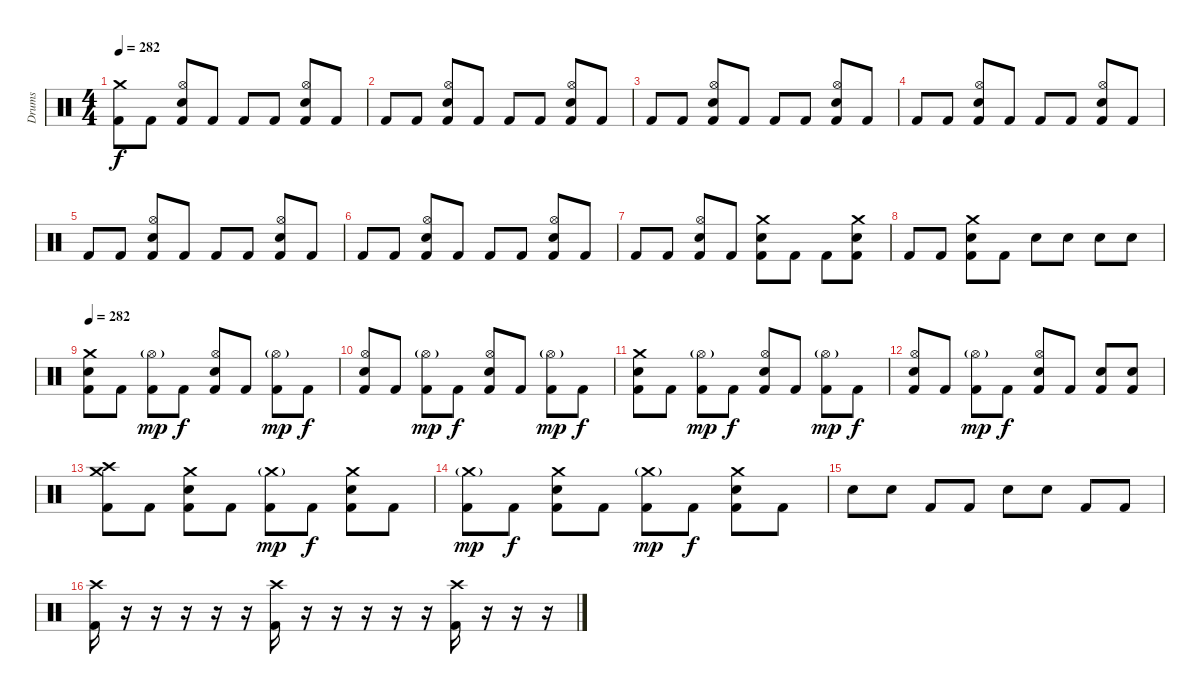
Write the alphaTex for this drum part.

\track ("Drums" "Drums") {instrument percussion}
\staff {score}
\articulation defaults
\ts (4 4)
\tempo 282
\clef neutral
\ks c
("Crash medium (hit)" "Kick (hit) 2").8{dy f} "Kick (hit) 2".8 ("Hi-Hat (open)" "Snare (hit) 2" "Kick (hit) 2").8 "Kick (hit) 2".8 "Kick (hit) 2".8 "Kick (hit) 2".8 ("Hi-Hat (open)" "Snare (hit) 2" "Kick (hit) 2").8 "Kick (hit) 2".8 |
"Kick (hit) 2".8 "Kick (hit) 2".8 ("Hi-Hat (open)" "Snare (hit) 2" "Kick (hit) 2").8 "Kick (hit) 2".8 "Kick (hit) 2".8 "Kick (hit) 2".8 ("Hi-Hat (open)" "Snare (hit) 2" "Kick (hit) 2").8 "Kick (hit) 2".8 |
"Kick (hit) 2".8 "Kick (hit) 2".8 ("Hi-Hat (open)" "Snare (hit) 2" "Kick (hit) 2").8 "Kick (hit) 2".8 "Kick (hit) 2".8 "Kick (hit) 2".8 ("Hi-Hat (open)" "Snare (hit) 2" "Kick (hit) 2").8 "Kick (hit) 2".8 |
"Kick (hit) 2".8 "Kick (hit) 2".8 ("Hi-Hat (open)" "Snare (hit) 2" "Kick (hit) 2").8 "Kick (hit) 2".8 "Kick (hit) 2".8 "Kick (hit) 2".8 ("Hi-Hat (open)" "Snare (hit) 2" "Kick (hit) 2").8 "Kick (hit) 2".8 |
"Kick (hit) 2".8 "Kick (hit) 2".8 ("Hi-Hat (open)" "Snare (hit) 2" "Kick (hit) 2").8 "Kick (hit) 2".8 "Kick (hit) 2".8 "Kick (hit) 2".8 ("Hi-Hat (open)" "Snare (hit) 2" "Kick (hit) 2").8 "Kick (hit) 2".8 |
"Kick (hit) 2".8 "Kick (hit) 2".8 ("Hi-Hat (open)" "Snare (hit) 2" "Kick (hit) 2").8 "Kick (hit) 2".8 "Kick (hit) 2".8 "Kick (hit) 2".8 ("Hi-Hat (open)" "Snare (hit) 2" "Kick (hit) 2").8 "Kick (hit) 2".8 |
"Kick (hit) 2".8 "Kick (hit) 2".8 ("Hi-Hat (open)" "Snare (hit) 2" "Kick (hit) 2").8 "Kick (hit) 2".8 ("Crash medium (hit)" "Snare (hit) 2" "Kick (hit) 2").8 "Kick (hit) 2".8 "Kick (hit) 2".8 ("Crash medium (hit)" "Snare (hit) 2" "Kick (hit) 2").8 |
"Kick (hit) 2".8 "Kick (hit) 2".8 ("Crash medium (hit)" "Snare (hit) 2" "Kick (hit) 2").8 "Kick (hit) 2".8 "Snare (hit) 2".8 "Snare (hit) 2".8 "Snare (hit) 2".8 "Snare (hit) 2".8 |
\tempo 282
("Crash medium (hit)" "Snare (hit) 2" "Kick (hit) 2").8 "Kick (hit) 2".8 ("Hi-Hat (open)"{g} "Kick (hit) 2").8{dy mp} "Kick (hit) 2".8{dy f} ("Hi-Hat (open)" "Snare (hit) 2" "Kick (hit) 2").8 "Kick (hit) 2".8 ("Hi-Hat (open)"{g} "Kick (hit) 2").8{dy mp} "Kick (hit) 2".8{dy f} |
("Hi-Hat (open)" "Snare (hit) 2" "Kick (hit) 2").8 "Kick (hit) 2".8 ("Hi-Hat (open)"{g} "Kick (hit) 2").8{dy mp} "Kick (hit) 2".8{dy f} ("Hi-Hat (open)" "Snare (hit) 2" "Kick (hit) 2").8 "Kick (hit) 2".8 ("Hi-Hat (open)"{g} "Kick (hit) 2").8{dy mp} "Kick (hit) 2".8{dy f} |
("Crash medium (hit)" "Snare (hit) 2" "Kick (hit) 2").8 "Kick (hit) 2".8 ("Hi-Hat (open)"{g} "Kick (hit) 2").8{dy mp} "Kick (hit) 2".8{dy f} ("Hi-Hat (open)" "Snare (hit) 2" "Kick (hit) 2").8 "Kick (hit) 2".8 ("Hi-Hat (open)"{g} "Kick (hit) 2").8{dy mp} "Kick (hit) 2".8{dy f} |
("Hi-Hat (open)" "Snare (hit) 2" "Kick (hit) 2").8 "Kick (hit) 2".8 ("Hi-Hat (open)"{g} "Kick (hit) 2").8{dy mp} "Kick (hit) 2".8{dy f} ("Hi-Hat (open)" "Snare (hit) 2" "Kick (hit) 2").8 "Kick (hit) 2".8 ("Snare (hit) 2" "Kick (hit) 2").8 ("Snare (hit) 2" "Kick (hit) 2").8 |
("Crash high (hit)" "Crash medium (hit)" "Kick (hit) 2").8 "Kick (hit) 2".8 ("Crash medium (hit)" "Snare (hit) 2" "Kick (hit) 2").8 "Kick (hit) 2".8 ("Crash medium (hit)"{g} "Kick (hit) 2").8{dy mp} "Kick (hit) 2".8{dy f} ("Crash medium (hit)" "Snare (hit) 2" "Kick (hit) 2").8 "Kick (hit) 2".8 |
("Crash medium (hit)"{g} "Kick (hit) 2").8{dy mp} "Kick (hit) 2".8{dy f} ("Crash medium (hit)" "Snare (hit) 2" "Kick (hit) 2").8 "Kick (hit) 2".8 ("Crash medium (hit)"{g} "Kick (hit) 2").8{dy mp} "Kick (hit) 2".8{dy f} ("Crash medium (hit)" "Snare (hit) 2" "Kick (hit) 2").8 "Kick (hit) 2".8 |
"Snare (hit) 2".8 "Snare (hit) 2".8 "Kick (hit) 2".8 "Kick (hit) 2".8 "Snare (hit) 2".8 "Snare (hit) 2".8 "Kick (hit) 2".8 "Kick (hit) 2".8 |
("Crash high (hit)" "Kick (hit) 2").16 r.16 r.16 r.16 r.16 r.16 ("Crash high (hit)" "Kick (hit) 2").16 r.16 r.16 r.16 r.16 r.16 ("Crash high (hit)" "Kick (hit) 2").16 r.16 r.16 r.16
